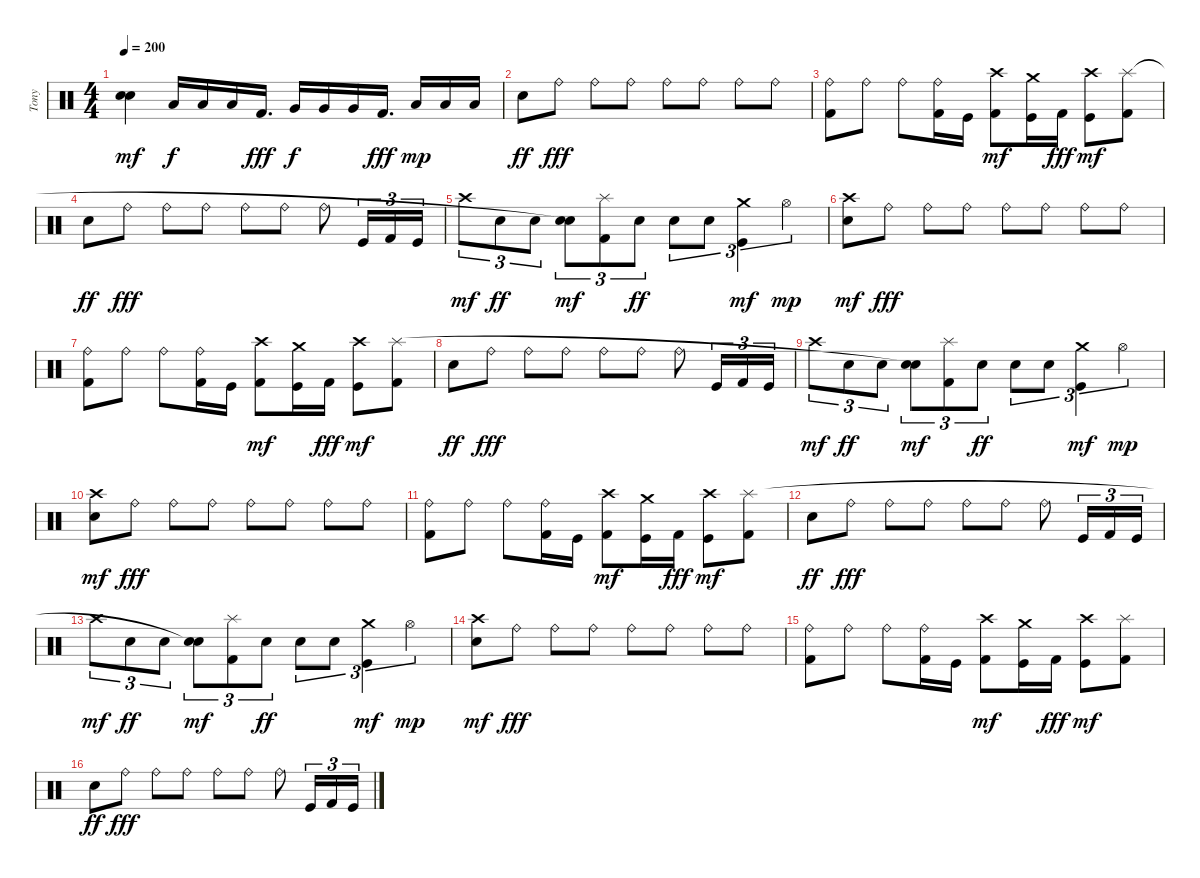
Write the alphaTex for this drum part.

\track ("Tony" "Tony") {instrument percussion}
\staff {score}
\articulation defaults
\ts (4 4)
\tempo 200
\clef neutral
\ks c
("Snare (hit)"{t} "Snare (hit)"{t}).4{dy mf} "Low Tom (hit)".16{dy f} "Low Tom (hit)".16 "Low Tom (hit)".16 "Kick (hit) 2".16{d dy fff} "Very Low Tom (hit)".16{dy f} "Very Low Tom (hit)".16 "Very Low Tom (hit)".16 "Kick (hit) 2".16{d dy fff} "Low Floor Tom (hit)".16{dy mp} "Low Floor Tom (hit)".16 "Low Floor Tom (hit)".16 |
"Snare (hit) 2".8{dy ff} "Ride (bell)".8{dy fff} "Ride (bell)".8 "Ride (bell)".8 "Ride (bell)".8 "Ride (bell)".8 "Ride (bell)".8 "Ride (bell)".8 |
("Kick (hit) 2" "Ride (bell)").8 "Ride (bell)".8 "Ride (bell)".8 ("Kick (hit) 2" "Ride (bell)").16 "Kick (hit)".16 ("Kick (hit) 2" "Crash high (hit)").8{dy mf} ("Kick (hit)" "Crash medium (hit)").16 "Kick (hit) 2".16{dy fff} ("Kick (hit)" "Crash high (hit)").8{dy mf} ("Kick (hit) 2" "Splash (hit)").8 |
"Snare (hit) 2".8{dy ff} "Ride (bell)".8{dy fff} "Ride (bell)".8 "Ride (bell)".8 "Ride (bell)".8 "Ride (bell)".8 "Ride (bell)".8 "Kick (hit)".16{tu (3 2)} "Kick (hit) 2".16{tu (3 2)} "Kick (hit)".16{tu (3 2)} |
"Crash high (hit)".8{tu (3 2) dy mf} "Snare (hit) 2".8{tu (3 2) dy ff} "Snare (hit) 2".8{tu (3 2)} ("Snare (hit) 2" "Snare (hit)"{t}).8{tu (3 2) dy mf} ("Kick (hit) 2" "Splash (hit)").8{tu (3 2)} "Snare (hit) 2".8{tu (3 2) dy ff} "Snare (hit) 2".8{tu (3 2)} "Snare (hit) 2".8{tu (3 2)} ("Kick (hit)" "Crash medium (hit)").4{tu (3 2) dy mf} "Hi-Hat (open)".4{tu (3 2) dy mp} |
("Snare (hit) 2" "Crash high (hit)").8{dy mf} "Ride (bell)".8{dy fff} "Ride (bell)".8 "Ride (bell)".8 "Ride (bell)".8 "Ride (bell)".8 "Ride (bell)".8 "Ride (bell)".8 |
("Kick (hit) 2" "Ride (bell)").8 "Ride (bell)".8 "Ride (bell)".8 ("Kick (hit) 2" "Ride (bell)").16 "Kick (hit)".16 ("Kick (hit) 2" "Crash high (hit)").8{dy mf} ("Kick (hit)" "Crash medium (hit)").16 "Kick (hit) 2".16{dy fff} ("Kick (hit)" "Crash high (hit)").8{dy mf} ("Kick (hit) 2" "Splash (hit)").8 |
"Snare (hit) 2".8{dy ff} "Ride (bell)".8{dy fff} "Ride (bell)".8 "Ride (bell)".8 "Ride (bell)".8 "Ride (bell)".8 "Ride (bell)".8 "Kick (hit)".16{tu (3 2)} "Kick (hit) 2".16{tu (3 2)} "Kick (hit)".16{tu (3 2)} |
"Crash high (hit)".8{tu (3 2) dy mf} "Snare (hit) 2".8{tu (3 2) dy ff} "Snare (hit) 2".8{tu (3 2)} ("Snare (hit) 2" "Snare (hit)"{t}).8{tu (3 2) dy mf} ("Kick (hit) 2" "Splash (hit)").8{tu (3 2)} "Snare (hit) 2".8{tu (3 2) dy ff} "Snare (hit) 2".8{tu (3 2)} "Snare (hit) 2".8{tu (3 2)} ("Kick (hit)" "Crash medium (hit)").4{tu (3 2) dy mf} "Hi-Hat (open)".4{tu (3 2) dy mp} |
("Snare (hit) 2" "Crash high (hit)").8{dy mf} "Ride (bell)".8{dy fff} "Ride (bell)".8 "Ride (bell)".8 "Ride (bell)".8 "Ride (bell)".8 "Ride (bell)".8 "Ride (bell)".8 |
("Kick (hit) 2" "Ride (bell)").8 "Ride (bell)".8 "Ride (bell)".8 ("Kick (hit) 2" "Ride (bell)").16 "Kick (hit)".16 ("Kick (hit) 2" "Crash high (hit)").8{dy mf} ("Kick (hit)" "Crash medium (hit)").16 "Kick (hit) 2".16{dy fff} ("Kick (hit)" "Crash high (hit)").8{dy mf} ("Kick (hit) 2" "Splash (hit)").8 |
"Snare (hit) 2".8{dy ff} "Ride (bell)".8{dy fff} "Ride (bell)".8 "Ride (bell)".8 "Ride (bell)".8 "Ride (bell)".8 "Ride (bell)".8 "Kick (hit)".16{tu (3 2)} "Kick (hit) 2".16{tu (3 2)} "Kick (hit)".16{tu (3 2)} |
"Crash high (hit)".8{tu (3 2) dy mf} "Snare (hit) 2".8{tu (3 2) dy ff} "Snare (hit) 2".8{tu (3 2)} ("Snare (hit) 2" "Snare (hit)"{t}).8{tu (3 2) dy mf} ("Kick (hit) 2" "Splash (hit)").8{tu (3 2)} "Snare (hit) 2".8{tu (3 2) dy ff} "Snare (hit) 2".8{tu (3 2)} "Snare (hit) 2".8{tu (3 2)} ("Kick (hit)" "Crash medium (hit)").4{tu (3 2) dy mf} "Hi-Hat (open)".4{tu (3 2) dy mp} |
("Snare (hit) 2" "Crash high (hit)").8{dy mf} "Ride (bell)".8{dy fff} "Ride (bell)".8 "Ride (bell)".8 "Ride (bell)".8 "Ride (bell)".8 "Ride (bell)".8 "Ride (bell)".8 |
("Kick (hit) 2" "Ride (bell)").8 "Ride (bell)".8 "Ride (bell)".8 ("Kick (hit) 2" "Ride (bell)").16 "Kick (hit)".16 ("Kick (hit) 2" "Crash high (hit)").8{dy mf} ("Kick (hit)" "Crash medium (hit)").16 "Kick (hit) 2".16{dy fff} ("Kick (hit)" "Crash high (hit)").8{dy mf} ("Kick (hit) 2" "Splash (hit)").8 |
"Snare (hit) 2".8{dy ff} "Ride (bell)".8{dy fff} "Ride (bell)".8 "Ride (bell)".8 "Ride (bell)".8 "Ride (bell)".8 "Ride (bell)".8 "Kick (hit)".16{tu (3 2)} "Kick (hit) 2".16{tu (3 2)} "Kick (hit)".16{tu (3 2)}
